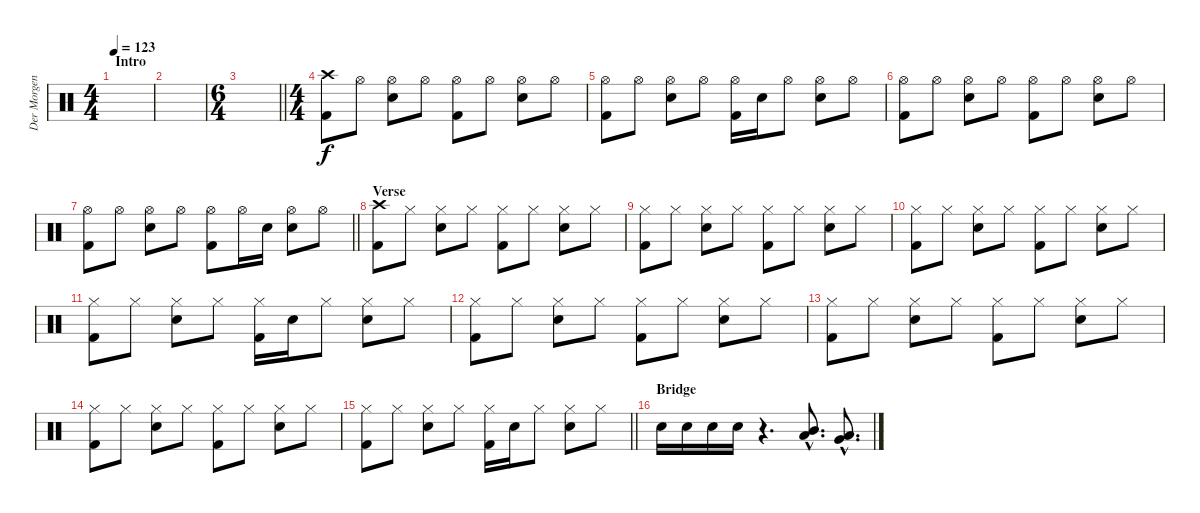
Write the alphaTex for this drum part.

\track ("Der Morgenstern" "Der Morgen") {instrument percussion}
\staff {score}
\articulation defaults
\ts (4 4)
\section ("" "Intro")
\tempo 123
\clef neutral
\ks c
|
|
\ts (6 4)
\barLineRight lightlight
|
\ts (4 4)
("Crash high (hit)" "Kick (hit) 2").8 "Hi-Hat (open)".8 ("Hi-Hat (open)" "Electric Snare (hit)").8 "Hi-Hat (open)".8 ("Hi-Hat (open)" "Kick (hit) 2").8 "Hi-Hat (open)".8 ("Hi-Hat (open)" "Electric Snare (hit)").8 "Hi-Hat (open)".8 |
("Hi-Hat (open)" "Kick (hit) 2").8 "Hi-Hat (open)".8 ("Hi-Hat (open)" "Electric Snare (hit)").8 "Hi-Hat (open)".8 ("Hi-Hat (open)" "Kick (hit) 2").16 "Electric Snare (hit)".16 "Hi-Hat (open)".8 ("Hi-Hat (open)" "Electric Snare (hit)").8 "Hi-Hat (open)".8 |
("Hi-Hat (open)" "Kick (hit) 2").8 "Hi-Hat (open)".8 ("Hi-Hat (open)" "Electric Snare (hit)").8 "Hi-Hat (open)".8 ("Hi-Hat (open)" "Kick (hit) 2").8 "Hi-Hat (open)".8 ("Hi-Hat (open)" "Electric Snare (hit)").8 "Hi-Hat (open)".8 |
\barLineRight lightlight
("Hi-Hat (open)" "Kick (hit) 2").8 "Hi-Hat (open)".8 ("Hi-Hat (open)" "Electric Snare (hit)").8 "Hi-Hat (open)".8 ("Hi-Hat (open)" "Kick (hit) 2").8 "Hi-Hat (open)".16 "Electric Snare (hit)".16 ("Hi-Hat (open)" "Electric Snare (hit)").8 "Hi-Hat (open)".8 |
\section ("" "Verse")
("Crash high (hit)" "Kick (hit) 2").8 "Hi-Hat (closed)".8 ("Hi-Hat (closed)" "Electric Snare (hit)").8 "Hi-Hat (closed)".8 ("Hi-Hat (closed)" "Kick (hit) 2").8 "Hi-Hat (closed)".8 ("Hi-Hat (closed)" "Electric Snare (hit)").8 "Hi-Hat (closed)".8 |
("Hi-Hat (closed)" "Kick (hit) 2").8 "Hi-Hat (closed)".8 ("Hi-Hat (closed)" "Electric Snare (hit)").8 "Hi-Hat (closed)".8 ("Hi-Hat (closed)" "Kick (hit) 2").8 "Hi-Hat (closed)".8 ("Hi-Hat (closed)" "Electric Snare (hit)").8 "Hi-Hat (closed)".8 |
("Hi-Hat (closed)" "Kick (hit) 2").8 "Hi-Hat (closed)".8 ("Hi-Hat (closed)" "Electric Snare (hit)").8 "Hi-Hat (closed)".8 ("Hi-Hat (closed)" "Kick (hit) 2").8 "Hi-Hat (closed)".8 ("Hi-Hat (closed)" "Electric Snare (hit)").8 "Hi-Hat (closed)".8 |
("Hi-Hat (closed)" "Kick (hit) 2").8 "Hi-Hat (closed)".8 ("Hi-Hat (closed)" "Electric Snare (hit)").8 "Hi-Hat (closed)".8 ("Hi-Hat (closed)" "Kick (hit) 2").16 "Electric Snare (hit)".16 "Hi-Hat (closed)".8 ("Hi-Hat (closed)" "Electric Snare (hit)").8 "Hi-Hat (closed)".8 |
("Hi-Hat (closed)" "Kick (hit) 2").8 "Hi-Hat (closed)".8 ("Hi-Hat (closed)" "Electric Snare (hit)").8 "Hi-Hat (closed)".8 ("Hi-Hat (closed)" "Kick (hit) 2").8 "Hi-Hat (closed)".8 ("Hi-Hat (closed)" "Electric Snare (hit)").8 "Hi-Hat (closed)".8 |
("Hi-Hat (closed)" "Kick (hit) 2").8 "Hi-Hat (closed)".8 ("Hi-Hat (closed)" "Electric Snare (hit)").8 "Hi-Hat (closed)".8 ("Hi-Hat (closed)" "Kick (hit) 2").8 "Hi-Hat (closed)".8 ("Hi-Hat (closed)" "Electric Snare (hit)").8 "Hi-Hat (closed)".8 |
("Hi-Hat (closed)" "Kick (hit) 2").8 "Hi-Hat (closed)".8 ("Hi-Hat (closed)" "Electric Snare (hit)").8 "Hi-Hat (closed)".8 ("Hi-Hat (closed)" "Kick (hit) 2").8 "Hi-Hat (closed)".8 ("Hi-Hat (closed)" "Electric Snare (hit)").8 "Hi-Hat (closed)".8 |
\barLineRight lightlight
("Hi-Hat (closed)" "Kick (hit) 2").8 "Hi-Hat (closed)".8 ("Hi-Hat (closed)" "Electric Snare (hit)").8 "Hi-Hat (closed)".8 ("Hi-Hat (closed)" "Kick (hit) 2").16 "Electric Snare (hit)".16 "Hi-Hat (closed)".8 ("Hi-Hat (closed)" "Electric Snare (hit)").8 "Hi-Hat (closed)".8 |
\section ("" "Bridge")
"Electric Snare (hit)".16 "Electric Snare (hit)".16 "Electric Snare (hit)".16 "Electric Snare (hit)".16 r.4{d} ("Mid Tom (hit)"{hac} "Low Tom (hit)"{hac}).8{d} ("Low Tom (hit)"{hac} "Very Low Tom (hit)"{hac}).8{d}
